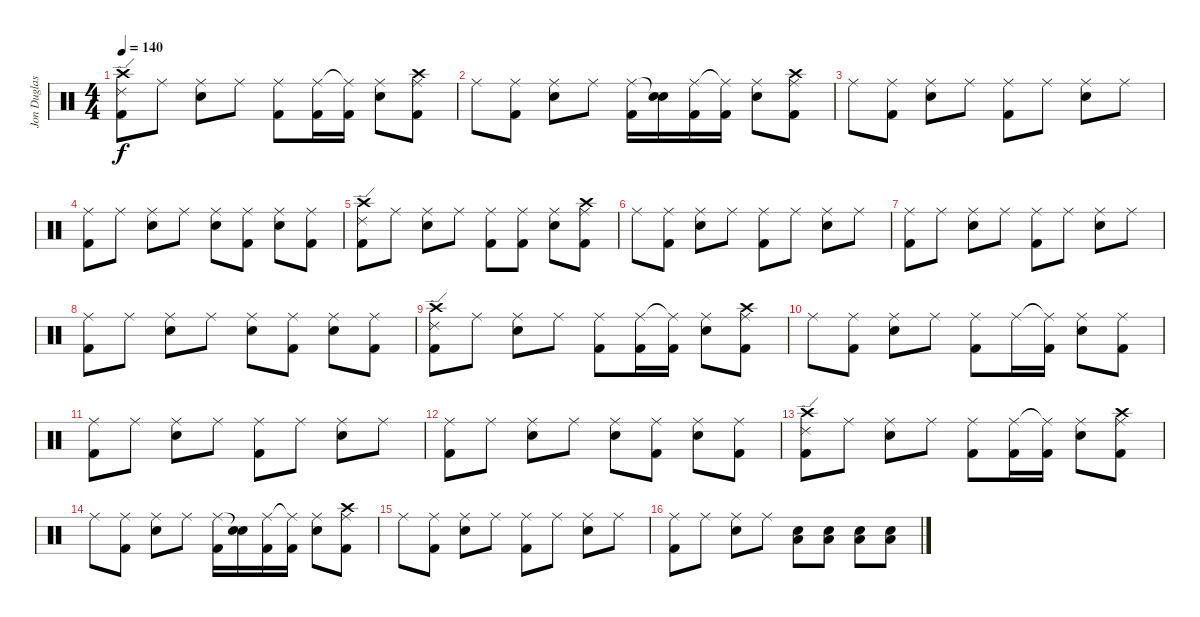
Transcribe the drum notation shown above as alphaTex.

\track ("Jon Duglas (Drums)" "Jon Duglas") {instrument percussion}
\staff {score}
\articulation defaults
\ts (4 4)
\tempo 140
\clef neutral
\ks c
("Ride (edge) 2" "Kick (hit) 2" "Crash high (hit)").8{dy f} "Ride (middle)".8 ("Ride (middle)" "Electric Snare (hit)").8 "Ride (middle)".8 ("Ride (middle)" "Kick (hit) 2").8 ("Ride (middle)" "Kick (hit) 2").16 ("Ride (middle)"{t} "Kick (hit) 2").16 ("Ride (middle)" "Electric Snare (hit)").8 ("Ride (middle)" "Kick (hit) 2" "Crash high (hit)").8 |
"Ride (middle)".8 ("Ride (middle)" "Kick (hit) 2").8 ("Ride (middle)" "Electric Snare (hit)").8 "Ride (middle)".8 ("Ride (middle)" "Kick (hit) 2").16 ("Snare (hit)"{t} "Electric Snare (hit)").16 ("Ride (middle)" "Kick (hit) 2").16 ("Ride (middle)"{t} "Kick (hit) 2").16 ("Ride (middle)" "Electric Snare (hit)").8 ("Ride (middle)" "Kick (hit) 2" "Crash high (hit)").8 |
"Ride (middle)".8 ("Ride (middle)" "Kick (hit) 2").8 ("Ride (middle)" "Electric Snare (hit)").8 "Ride (middle)".8 ("Ride (middle)" "Kick (hit) 2").8 "Ride (middle)".8 ("Ride (middle)" "Electric Snare (hit)").8 "Ride (middle)".8 |
("Ride (middle)" "Kick (hit) 2").8 "Ride (middle)".8 ("Ride (middle)" "Electric Snare (hit)").8 "Ride (middle)".8 ("Ride (middle)" "Electric Snare (hit)").8 ("Ride (middle)" "Kick (hit) 2").8 ("Ride (middle)" "Electric Snare (hit)").8 ("Ride (middle)" "Kick (hit) 2").8 |
("Ride (edge) 2" "Kick (hit) 2" "Crash high (hit)").8 "Ride (middle)".8 ("Ride (middle)" "Electric Snare (hit)").8 "Ride (middle)".8 ("Ride (middle)" "Kick (hit) 2").8 ("Ride (middle)" "Kick (hit) 2").8 ("Ride (middle)" "Electric Snare (hit)").8 ("Ride (middle)" "Kick (hit) 2" "Crash high (hit)").8 |
"Ride (middle)".8 ("Ride (middle)" "Kick (hit) 2").8 ("Ride (middle)" "Electric Snare (hit)").8 "Ride (middle)".8 ("Ride (middle)" "Kick (hit) 2").8 "Ride (middle)".8 ("Ride (middle)" "Electric Snare (hit)").8 "Ride (middle)".8 |
("Ride (middle)" "Kick (hit) 2").8 "Ride (middle)".8 ("Ride (middle)" "Electric Snare (hit)").8 "Ride (middle)".8 ("Ride (middle)" "Kick (hit) 2").8 "Ride (middle)".8 ("Ride (middle)" "Electric Snare (hit)").8 "Ride (middle)".8 |
("Ride (middle)" "Kick (hit) 2").8 "Ride (middle)".8 ("Ride (middle)" "Electric Snare (hit)").8 "Ride (middle)".8 ("Ride (middle)" "Electric Snare (hit)").8 ("Ride (middle)" "Kick (hit) 2").8 ("Ride (middle)" "Electric Snare (hit)").8 ("Ride (middle)" "Kick (hit) 2").8 |
("Ride (edge) 2" "Kick (hit) 2" "Crash high (hit)").8 "Ride (middle)".8 ("Ride (middle)" "Electric Snare (hit)").8 "Ride (middle)".8 ("Ride (middle)" "Kick (hit) 2").8 ("Ride (middle)" "Kick (hit) 2").16 ("Ride (middle)"{t} "Kick (hit) 2").16 ("Ride (middle)" "Electric Snare (hit)").8 ("Ride (middle)" "Kick (hit) 2" "Crash high (hit)").8 |
"Ride (middle)".8 ("Ride (middle)" "Kick (hit) 2").8 ("Ride (middle)" "Electric Snare (hit)").8 "Ride (middle)".8 ("Ride (middle)" "Kick (hit) 2").8 "Ride (middle)".16 ("Ride (middle)"{t} "Kick (hit) 2").16 ("Ride (middle)" "Electric Snare (hit)").8 ("Ride (middle)" "Kick (hit) 2").8 |
("Ride (middle)" "Kick (hit) 2").8 "Ride (middle)".8 ("Ride (middle)" "Electric Snare (hit)").8 "Ride (middle)".8 ("Ride (middle)" "Kick (hit) 2").8 "Ride (middle)".8 ("Ride (middle)" "Electric Snare (hit)").8 "Ride (middle)".8 |
("Ride (middle)" "Kick (hit) 2").8 "Ride (middle)".8 ("Ride (middle)" "Electric Snare (hit)").8 "Ride (middle)".8 ("Ride (middle)" "Electric Snare (hit)").8 ("Ride (middle)" "Kick (hit) 2").8 ("Ride (middle)" "Electric Snare (hit)").8 ("Ride (middle)" "Kick (hit) 2").8 |
("Ride (edge) 2" "Kick (hit) 2" "Crash high (hit)").8 "Ride (middle)".8 ("Ride (middle)" "Electric Snare (hit)").8 "Ride (middle)".8 ("Ride (middle)" "Kick (hit) 2").8 ("Ride (middle)" "Kick (hit) 2").16 ("Ride (middle)"{t} "Kick (hit) 2").16 ("Ride (middle)" "Electric Snare (hit)").8 ("Ride (middle)" "Kick (hit) 2" "Crash high (hit)").8 |
"Ride (middle)".8 ("Ride (middle)" "Kick (hit) 2").8 ("Ride (middle)" "Electric Snare (hit)").8 "Ride (middle)".8 ("Ride (middle)" "Kick (hit) 2").16 ("Snare (hit)"{t} "Electric Snare (hit)").16 ("Ride (middle)" "Kick (hit) 2").16 ("Ride (middle)"{t} "Kick (hit) 2").16 ("Ride (middle)" "Electric Snare (hit)").8 ("Ride (middle)" "Kick (hit) 2" "Crash high (hit)").8 |
"Ride (middle)".8 ("Ride (middle)" "Kick (hit) 2").8 ("Ride (middle)" "Electric Snare (hit)").8 "Ride (middle)".8 ("Ride (middle)" "Kick (hit) 2").8 "Ride (middle)".8 ("Ride (middle)" "Electric Snare (hit)").8 "Ride (middle)".8 |
("Ride (middle)" "Kick (hit) 2").8 "Ride (middle)".8 ("Ride (middle)" "Electric Snare (hit)").8 "Ride (middle)".8 ("Low Floor Tom (hit)" "Electric Snare (hit)").8 ("Low Floor Tom (hit)" "Electric Snare (hit)").8 ("Low Floor Tom (hit)" "Electric Snare (hit)").8 ("Low Floor Tom (hit)" "Electric Snare (hit)").8
